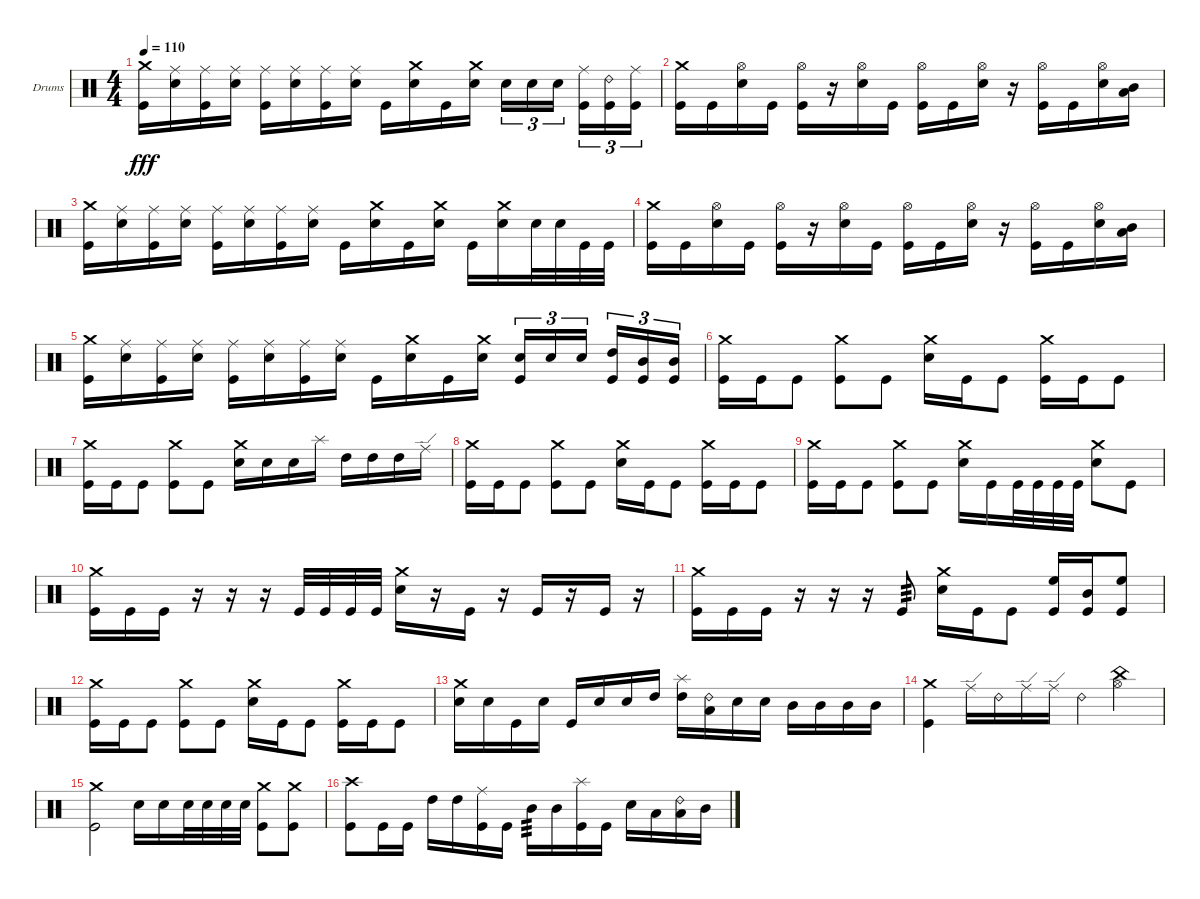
\defaultSystemsLayout 4
\bracketExtendMode groupsimilarinstruments
\firstSystemTrackNameOrientation horizontal
\otherSystemsTrackNameOrientation horizontal
\track ("Nikita Korzhov" "Drums") {instrument percussion}
\staff {score}
\articulation defaults
\ts (4 4)
\tempo 110
\clef neutral
\scale
0.333333
\ks c
("Kick (hit)" "Crash medium (hit)").16{dy fff} ("Snare (hit) 2" "Ride (middle)").16 ("Kick (hit)" "Ride (middle)").16 ("Snare (hit) 2" "Ride (middle)").16 ("Kick (hit)" "Ride (middle)").16 ("Snare (hit) 2" "Ride (middle)").16 ("Kick (hit)" "Ride (middle)").16 ("Snare (hit) 2" "Ride (middle)").16 "Kick (hit)".16 ("Snare (hit) 2" "Crash medium (hit)").16 "Kick (hit)".16 ("Snare (hit) 2" "Crash medium (hit)").16 "Snare (hit) 2".16{tu (3 2)} "Snare (hit) 2".16{tu (3 2)} "Snare (hit) 2".16{tu (3 2)} ("Kick (hit)" "Ride (middle)").16{tu (3 2)} ("Kick (hit)" "Ride (bell) 2").16{tu (3 2)} ("Kick (hit)" "Ride (middle)").16{tu (3 2)} |
\scale
0.333333 ("Kick (hit)" "Crash medium (hit)").16 "Kick (hit)".16 ("Snare (hit) 2" "Hi-Hat (open)").16 "Kick (hit)".16 ("Kick (hit)" "Hi-Hat (open)").16 r.16 ("Snare (hit) 2" "Hi-Hat (open)").16 "Kick (hit)".16 ("Kick (hit)" "Hi-Hat (open)").16 "Kick (hit)".16 ("Snare (hit) 2" "Hi-Hat (open)").16 r.16 ("Hi-Hat (open)" "Kick (hit)").16 "Kick (hit)".16 ("Snare (hit) 2" "Hi-Hat (open)").16 ("Mid Tom (hit)" "Low Tom (hit)").16 |
\scale
0.333333 ("Kick (hit)" "Crash medium (hit)").16 ("Snare (hit) 2" "Ride (middle)").16 ("Kick (hit)" "Ride (middle)").16 ("Snare (hit) 2" "Ride (middle)").16 ("Kick (hit)" "Ride (middle)").16 ("Snare (hit) 2" "Ride (middle)").16 ("Kick (hit)" "Ride (middle)").16 ("Snare (hit) 2" "Ride (middle)").16 "Kick (hit)".16 ("Snare (hit) 2" "Crash medium (hit)").16 "Kick (hit)".16 ("Snare (hit) 2" "Crash medium (hit)").16 "Kick (hit)".16 ("Snare (hit) 2" "Crash medium (hit)").16 "Snare (hit) 2".32 "Snare (hit) 2".32 "Kick (hit)".32 "Kick (hit)".32 |
\scale
0.333333 ("Kick (hit)" "Crash medium (hit)").16 "Kick (hit)".16 ("Snare (hit) 2" "Hi-Hat (open)").16 "Kick (hit)".16 ("Kick (hit)" "Hi-Hat (open)").16 r.16 ("Snare (hit) 2" "Hi-Hat (open)").16 "Kick (hit)".16 ("Kick (hit)" "Hi-Hat (open)").16 "Kick (hit)".16 ("Snare (hit) 2" "Hi-Hat (open)").16 r.16 ("Hi-Hat (open)" "Kick (hit)").16 "Kick (hit)".16 ("Snare (hit) 2" "Hi-Hat (open)").16 ("Mid Tom (hit)" "Low Tom (hit)").16 |
\scale
0.333333 ("Kick (hit)" "Crash medium (hit)").16 ("Snare (hit) 2" "Ride (middle)").16 ("Kick (hit)" "Ride (middle)").16 ("Snare (hit) 2" "Ride (middle)").16 ("Kick (hit)" "Ride (middle)").16 ("Snare (hit) 2" "Ride (middle)").16 ("Kick (hit)" "Ride (middle)").16 ("Snare (hit) 2" "Ride (middle)").16 "Kick (hit)".16 ("Snare (hit) 2" "Crash medium (hit)").16 "Kick (hit)".16 ("Snare (hit) 2" "Crash medium (hit)").16 ("Snare (hit) 2" "Kick (hit)").16{tu (3 2)} "Snare (hit) 2".16{tu (3 2)} "Snare (hit) 2".16{tu (3 2)} ("Kick (hit)" "High Tom (hit)").16{tu (3 2)} ("Kick (hit)" "Mid Tom (hit)").16{tu (3 2)} ("Kick (hit)" "Mid Tom (hit)").16{tu (3 2)} |
\scale
0.333333 ("Kick (hit)" "Crash medium (hit)").16 "Kick (hit)".16 "Kick (hit)".8 ("Kick (hit)" "Crash medium (hit)").8 "Kick (hit)".8 ("Snare (hit) 2" "Crash medium (hit)").16 "Kick (hit)".16 "Kick (hit)".8 ("Kick (hit)" "Crash medium (hit)").16 "Kick (hit)".16 "Kick (hit)".8 |
\scale
0.333333 ("Kick (hit)" "Crash medium (hit)").16 "Kick (hit)".16 "Kick (hit)".8 ("Kick (hit)" "Crash medium (hit)").8 "Kick (hit)".8 ("Snare (hit) 2" "Crash medium (hit)").16 "Snare (hit) 2".16 "Snare (hit) 2".16 "Splash (hit)".16 "High Tom (hit)".16 "High Tom (hit)".16 "High Tom (hit)".16 "Ride (edge)".16 |
\scale
0.333333 ("Kick (hit)" "Crash medium (hit)").16 "Kick (hit)".16 "Kick (hit)".8 ("Kick (hit)" "Crash medium (hit)").8 "Kick (hit)".8 ("Snare (hit) 2" "Crash medium (hit)").16 "Kick (hit)".16 "Kick (hit)".8 ("Kick (hit)" "Crash medium (hit)").16 "Kick (hit)".16 "Kick (hit)".8 |
\scale
0.333333 ("Kick (hit)" "Crash medium (hit)").16 "Kick (hit)".16 "Kick (hit)".8 ("Kick (hit)" "Crash medium (hit)").8 "Kick (hit)".8 ("Snare (hit) 2" "Crash medium (hit)").16 "Kick (hit)".16 "Kick (hit)".32 "Kick (hit)".32 "Kick (hit)".32 "Kick (hit)".32 ("Snare (hit) 2" "Crash medium (hit)").8 "Kick (hit)".8 |
\scale
0.333333 ("Kick (hit)" "Crash medium (hit)").16 "Kick (hit)".16 "Kick (hit)".16 r.16 r.16 r.16 "Kick (hit)".32 "Kick (hit)".32 "Kick (hit)".32 "Kick (hit)".32 ("Snare (hit) 2" "Crash medium (hit)").16 r.16 "Kick (hit)".16 r.16 "Kick (hit)".16 r.16 "Kick (hit)".16 r.16 |
\scale
0.333333 ("Kick (hit)" "Crash medium (hit)").16 "Kick (hit)".16 "Kick (hit)".16 r.16 r.16 r.16 "Kick (hit)".8{tp 3} ("Snare (hit) 2" "Crash medium (hit)").16 "Kick (hit)".16 "Kick (hit)".8 ("High Floor Tom (hit)" "Kick (hit)").16 ("Mid Tom (hit)" "Kick (hit)").16 ("High Floor Tom (hit)" "Kick (hit)").8 |
\scale
0.333333 ("Kick (hit)" "Crash medium (hit)").16 "Kick (hit)".16 "Kick (hit)".8 ("Kick (hit)" "Crash medium (hit)").8 "Kick (hit)".8 ("Snare (hit) 2" "Crash medium (hit)").16 "Kick (hit)".16 "Kick (hit)".8 ("Kick (hit)" "Crash medium (hit)").16 "Kick (hit)".16 "Kick (hit)".8 |
\scale
0.333333 ("Snare (hit) 2" "Crash medium (hit)").16 "Snare (hit) 2".16 "Kick (hit)".16 "Snare (hit) 2".16 "Kick (hit)".16 "Snare (hit) 2".16 "Snare (hit) 2".16 "High Tom (hit)".16 ("High Tom (hit)" "Splash (hit)").16 ("Low Tom (hit)" "Ride (bell) 2").16 "Snare (hit) 2".16 "Snare (hit) 2".16 "Mid Tom (hit)".16 "Mid Tom (hit)".16 "Mid Tom (hit)".16 "Mid Tom (hit)".16 |
\scale
0.333333 ("Kick (hit)" "Crash medium (hit)").4 "Ride (edge)".16 "Ride (bell) 2".16 "Ride (edge)".16 "Ride (edge)".16 "Ride (bell) 2".4 ("China (hit)" "Hi-Hat (open)").4 |
\scale
0.333333 ("Kick (hit)" "Crash medium (hit)").2 "Snare (hit) 2".16 "Snare (hit) 2".16 "Snare (hit) 2".32 "Snare (hit) 2".32 "Snare (hit) 2".32 "Snare (hit) 2".32 ("Kick (hit)" "Crash medium (hit)").8 ("Kick (hit)" "Crash medium (hit)").8 |
\scale
0.333333 ("Kick (hit)" "Crash high (hit)").8 "Kick (hit)".16 "Kick (hit)".16 "High Tom (hit)".16 "High Tom (hit)".16 ("Kick (hit)" "Ride (middle)").16 "Kick (hit)".16 "Mid Tom (hit)".16{tp 3} "Mid Tom (hit)".16 ("Kick (hit)" "Splash (hit)").16 "Kick (hit)".16 "Snare (hit) 2".16 "Low Tom (hit)".16 ("Low Tom (hit)" "Ride (bell) 2").16 "Mid Tom (hit)".16
